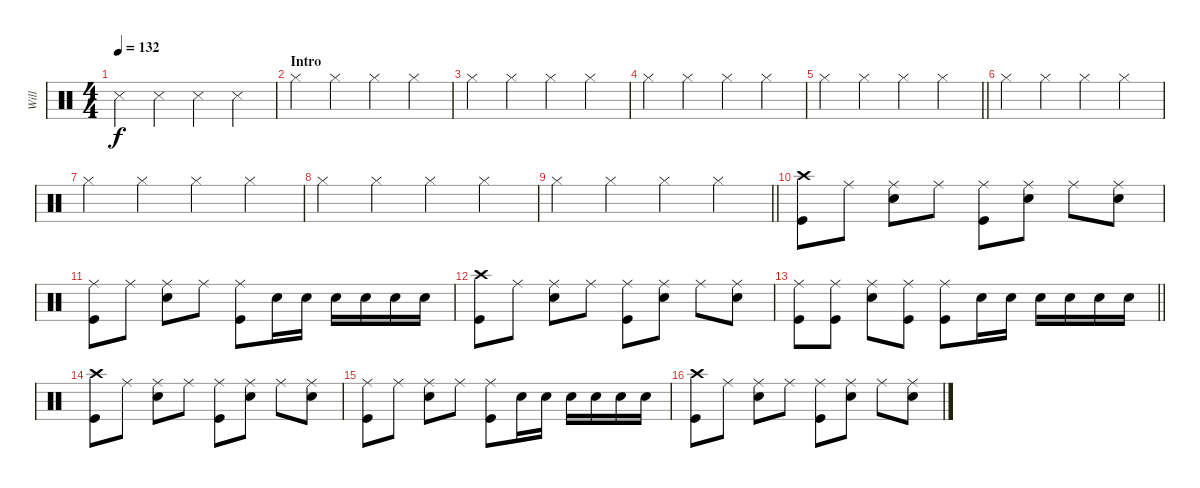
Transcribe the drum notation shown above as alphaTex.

\track ("Will" "Will") {instrument percussion}
\staff {score}
\articulation defaults
\ts (4 4)
\tempo 132
\clef neutral
\ks c "Snare (side stick) 3".4{dy f} "Snare (side stick) 3".4 "Snare (side stick) 3".4 "Snare (side stick) 3".4
|
\section ("" "Intro")
"Hi-Hat (closed)".4 "Hi-Hat (closed)".4 "Hi-Hat (closed)".4 "Hi-Hat (closed)".4 |
"Hi-Hat (closed)".4 "Hi-Hat (closed)".4 "Hi-Hat (closed)".4 "Hi-Hat (closed)".4 |
"Hi-Hat (closed)".4 "Hi-Hat (closed)".4 "Hi-Hat (closed)".4 "Hi-Hat (closed)".4 |
\barLineRight lightlight "Hi-Hat (closed)".4 "Hi-Hat (closed)".4 "Hi-Hat (closed)".4 "Hi-Hat (closed)".4
|
"Hi-Hat (closed)".4 "Hi-Hat (closed)".4 "Hi-Hat (closed)".4 "Hi-Hat (closed)".4 |
"Hi-Hat (closed)".4 "Hi-Hat (closed)".4 "Hi-Hat (closed)".4 "Hi-Hat (closed)".4 |
"Hi-Hat (closed)".4 "Hi-Hat (closed)".4 "Hi-Hat (closed)".4 "Hi-Hat (closed)".4 |
\barLineRight lightlight "Hi-Hat (closed)".4 "Hi-Hat (closed)".4 "Hi-Hat (closed)".4 "Hi-Hat (closed)".4
|
("Crash high (hit)" "Kick (hit)").8 "Ride (middle)".8 ("Ride (middle)" "Snare (hit) 2").8 "Ride (middle)".8 ("Ride (middle)" "Kick (hit)").8 ("Ride (middle)" "Snare (hit) 2").8 "Ride (middle)".8 ("Ride (middle)" "Snare (hit) 2").8 |
("Ride (middle)" "Kick (hit)").8 "Ride (middle)".8 ("Ride (middle)" "Snare (hit) 2").8 "Ride (middle)".8 ("Ride (middle)" "Kick (hit)").8 "Snare (hit) 2".16 "Snare (hit) 2".16 "Snare (hit) 2".16 "Snare (hit) 2".16 "Snare (hit) 2".16 "Snare (hit) 2".16 |
("Crash high (hit)" "Kick (hit)").8 "Ride (middle)".8 ("Ride (middle)" "Snare (hit) 2").8 "Ride (middle)".8 ("Ride (middle)" "Kick (hit)").8 ("Ride (middle)" "Snare (hit) 2").8 "Ride (middle)".8 ("Ride (middle)" "Snare (hit) 2").8 |
\barLineRight lightlight
("Ride (middle)" "Kick (hit)").8 ("Ride (middle)" "Kick (hit)").8 ("Ride (middle)" "Snare (hit) 2").8 ("Ride (middle)" "Kick (hit)").8 ("Ride (middle)" "Kick (hit)").8 "Snare (hit) 2".16 "Snare (hit) 2".16 "Snare (hit) 2".16 "Snare (hit) 2".16 "Snare (hit) 2".16 "Snare (hit) 2".16 |
("Crash high (hit)" "Kick (hit)").8 "Ride (middle)".8 ("Ride (middle)" "Snare (hit) 2").8 "Ride (middle)".8 ("Ride (middle)" "Kick (hit)").8 ("Ride (middle)" "Snare (hit) 2").8 "Ride (middle)".8 ("Ride (middle)" "Snare (hit) 2").8 |
("Ride (middle)" "Kick (hit)").8 "Ride (middle)".8 ("Ride (middle)" "Snare (hit) 2").8 "Ride (middle)".8 ("Ride (middle)" "Kick (hit)").8 "Snare (hit) 2".16 "Snare (hit) 2".16 "Snare (hit) 2".16 "Snare (hit) 2".16 "Snare (hit) 2".16 "Snare (hit) 2".16 |
("Crash high (hit)" "Kick (hit)").8 "Ride (middle)".8 ("Ride (middle)" "Snare (hit) 2").8 "Ride (middle)".8 ("Ride (middle)" "Kick (hit)").8 ("Ride (middle)" "Snare (hit) 2").8 "Ride (middle)".8 ("Ride (middle)" "Snare (hit) 2").8
